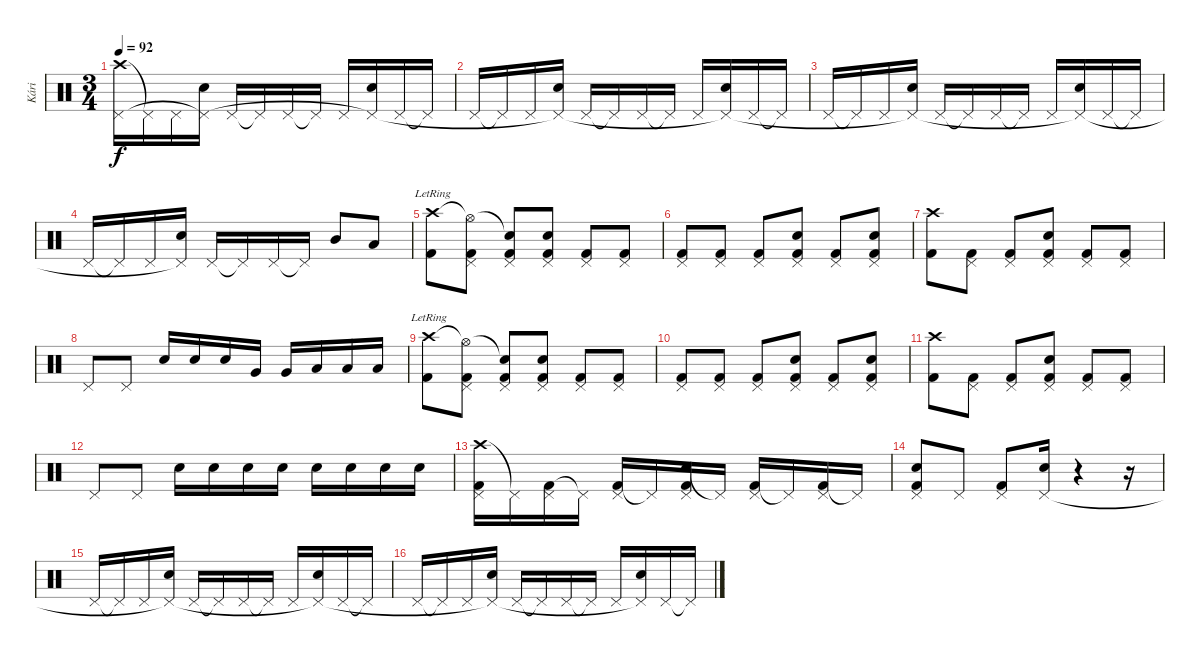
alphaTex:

\track ("Kári" "Kári") {instrument percussion}
\staff {score}
\articulation defaults
\ts (3 4)
\tempo 92
\clef neutral
\ks c
("Crash high (hit)" "Pedal Hi-Hat (hit)").16{dy f} "Pedal Hi-Hat (hit)"{t}.16 "Pedal Hi-Hat (hit)".16 ("Electric Snare (hit)" "Pedal Hi-Hat (hit)"{t}).16 "Pedal Hi-Hat (hit)".16 "Pedal Hi-Hat (hit)"{t}.16 "Pedal Hi-Hat (hit)".16 "Pedal Hi-Hat (hit)"{t}.16 "Pedal Hi-Hat (hit)".16 ("Electric Snare (hit)" "Pedal Hi-Hat (hit)"{t}).16 "Pedal Hi-Hat (hit)".16 "Pedal Hi-Hat (hit)"{t}.16 |
"Pedal Hi-Hat (hit)".16 "Pedal Hi-Hat (hit)"{t}.16 "Pedal Hi-Hat (hit)".16 ("Electric Snare (hit)" "Pedal Hi-Hat (hit)"{t}).16 "Pedal Hi-Hat (hit)".16 "Pedal Hi-Hat (hit)"{t}.16 "Pedal Hi-Hat (hit)".16 "Pedal Hi-Hat (hit)"{t}.16 "Pedal Hi-Hat (hit)".16 ("Electric Snare (hit)" "Pedal Hi-Hat (hit)"{t}).16 "Pedal Hi-Hat (hit)".16 "Pedal Hi-Hat (hit)"{t}.16 |
"Pedal Hi-Hat (hit)".16 "Pedal Hi-Hat (hit)"{t}.16 "Pedal Hi-Hat (hit)".16 ("Electric Snare (hit)" "Pedal Hi-Hat (hit)"{t}).16 "Pedal Hi-Hat (hit)".16 "Pedal Hi-Hat (hit)"{t}.16 "Pedal Hi-Hat (hit)".16 "Pedal Hi-Hat (hit)"{t}.16 "Pedal Hi-Hat (hit)".16 ("Electric Snare (hit)" "Pedal Hi-Hat (hit)"{t}).16 "Pedal Hi-Hat (hit)".16 "Pedal Hi-Hat (hit)"{t}.16 |
"Pedal Hi-Hat (hit)".16 "Pedal Hi-Hat (hit)"{t}.16 "Pedal Hi-Hat (hit)".16 ("Electric Snare (hit)" "Pedal Hi-Hat (hit)"{t}).16 "Pedal Hi-Hat (hit)".16 "Pedal Hi-Hat (hit)"{t}.16 "Pedal Hi-Hat (hit)".16 "Pedal Hi-Hat (hit)"{t}.16 "Mid Tom (hit)".8 "Low Tom (hit)".8 |
("Kick (hit) 2" "Crash high (hit)"{lr}).8 ("Kick (hit) 2" "Hi-Hat (open)"{t} "Pedal Hi-Hat (hit)").8 ("Kick (hit) 2" "Snare (hit)"{t} "Pedal Hi-Hat (hit)").8 ("Kick (hit) 2" "Electric Snare (hit)" "Pedal Hi-Hat (hit)").8 ("Kick (hit) 2" "Pedal Hi-Hat (hit)").8 ("Kick (hit) 2" "Pedal Hi-Hat (hit)").8 |
("Kick (hit) 2" "Pedal Hi-Hat (hit)").8 ("Kick (hit) 2" "Pedal Hi-Hat (hit)").8 ("Kick (hit) 2" "Pedal Hi-Hat (hit)").8 ("Kick (hit) 2" "Electric Snare (hit)" "Pedal Hi-Hat (hit)").8 ("Kick (hit) 2" "Pedal Hi-Hat (hit)").8 ("Kick (hit) 2" "Electric Snare (hit)" "Pedal Hi-Hat (hit)").8 |
("Kick (hit) 2" "Crash high (hit)").8 ("Kick (hit) 2" "Pedal Hi-Hat (hit)").8 ("Kick (hit) 2" "Pedal Hi-Hat (hit)").8 ("Kick (hit) 2" "Electric Snare (hit)" "Pedal Hi-Hat (hit)").8 ("Kick (hit) 2" "Pedal Hi-Hat (hit)").8 ("Kick (hit) 2" "Pedal Hi-Hat (hit)").8 |
"Pedal Hi-Hat (hit)".8 "Pedal Hi-Hat (hit)".8 "Electric Snare (hit)".16 "Electric Snare (hit)".16 "Electric Snare (hit)".16 "Very Low Tom (hit)".16 "Very Low Tom (hit)".16 "Low Floor Tom (hit)".16 "Low Floor Tom (hit)".16 "Low Floor Tom (hit)".16 |
("Kick (hit) 2" "Crash high (hit)"{lr}).8 ("Kick (hit) 2" "Hi-Hat (open)"{t} "Pedal Hi-Hat (hit)").8 ("Kick (hit) 2" "Snare (hit)"{t} "Pedal Hi-Hat (hit)").8 ("Kick (hit) 2" "Electric Snare (hit)" "Pedal Hi-Hat (hit)").8 ("Kick (hit) 2" "Pedal Hi-Hat (hit)").8 ("Kick (hit) 2" "Pedal Hi-Hat (hit)").8 |
("Kick (hit) 2" "Pedal Hi-Hat (hit)").8 ("Kick (hit) 2" "Pedal Hi-Hat (hit)").8 ("Kick (hit) 2" "Pedal Hi-Hat (hit)").8 ("Kick (hit) 2" "Electric Snare (hit)" "Pedal Hi-Hat (hit)").8 ("Kick (hit) 2" "Pedal Hi-Hat (hit)").8 ("Kick (hit) 2" "Electric Snare (hit)" "Pedal Hi-Hat (hit)").8 |
("Kick (hit) 2" "Crash high (hit)").8 ("Kick (hit) 2" "Pedal Hi-Hat (hit)").8 ("Kick (hit) 2" "Pedal Hi-Hat (hit)").8 ("Kick (hit) 2" "Electric Snare (hit)" "Pedal Hi-Hat (hit)").8 ("Kick (hit) 2" "Pedal Hi-Hat (hit)").8 ("Kick (hit) 2" "Pedal Hi-Hat (hit)").8 |
"Pedal Hi-Hat (hit)".8 "Pedal Hi-Hat (hit)".8 "Electric Snare (hit)".16 "Electric Snare (hit)".16 "Electric Snare (hit)".16 "Electric Snare (hit)".16 "Electric Snare (hit)".16 "Electric Snare (hit)".16 "Electric Snare (hit)".16 "Electric Snare (hit)".16 |
("Crash high (hit)" "Kick (hit) 2" "Pedal Hi-Hat (hit)").16 "Pedal Hi-Hat (hit)"{t}.16 ("Kick (hit) 2" "Pedal Hi-Hat (hit)").16 "Pedal Hi-Hat (hit)"{t}.16 ("Kick (hit) 2" "Pedal Hi-Hat (hit)").16 "Pedal Hi-Hat (hit)"{t}.16 ("Electric Snare (hit)" "Kick (hit) 2" "Pedal Hi-Hat (hit)").16 "Pedal Hi-Hat (hit)"{t}.16 ("Kick (hit) 2" "Pedal Hi-Hat (hit)").16 "Pedal Hi-Hat (hit)"{t}.16 ("Kick (hit) 2" "Pedal Hi-Hat (hit)").16 "Pedal Hi-Hat (hit)"{t}.16 |
("Electric Snare (hit)" "Kick (hit) 2" "Pedal Hi-Hat (hit)").8 "Pedal Hi-Hat (hit)".8 ("Kick (hit) 2" "Pedal Hi-Hat (hit)").8 ("Electric Snare (hit)" "Pedal Hi-Hat (hit)").16 r.4 r.16 |
"Pedal Hi-Hat (hit)".16 "Pedal Hi-Hat (hit)"{t}.16 "Pedal Hi-Hat (hit)".16 ("Electric Snare (hit)" "Pedal Hi-Hat (hit)"{t}).16 "Pedal Hi-Hat (hit)".16 "Pedal Hi-Hat (hit)"{t}.16 "Pedal Hi-Hat (hit)".16 "Pedal Hi-Hat (hit)"{t}.16 "Pedal Hi-Hat (hit)".16 ("Electric Snare (hit)" "Pedal Hi-Hat (hit)"{t}).16 "Pedal Hi-Hat (hit)".16 "Pedal Hi-Hat (hit)"{t}.16 |
"Pedal Hi-Hat (hit)".16 "Pedal Hi-Hat (hit)"{t}.16 "Pedal Hi-Hat (hit)".16 ("Electric Snare (hit)" "Pedal Hi-Hat (hit)"{t}).16 "Pedal Hi-Hat (hit)".16 "Pedal Hi-Hat (hit)"{t}.16 "Pedal Hi-Hat (hit)".16 "Pedal Hi-Hat (hit)"{t}.16 "Pedal Hi-Hat (hit)".16 ("Electric Snare (hit)" "Pedal Hi-Hat (hit)"{t}).16 "Pedal Hi-Hat (hit)".16 "Pedal Hi-Hat (hit)"{t}.16
